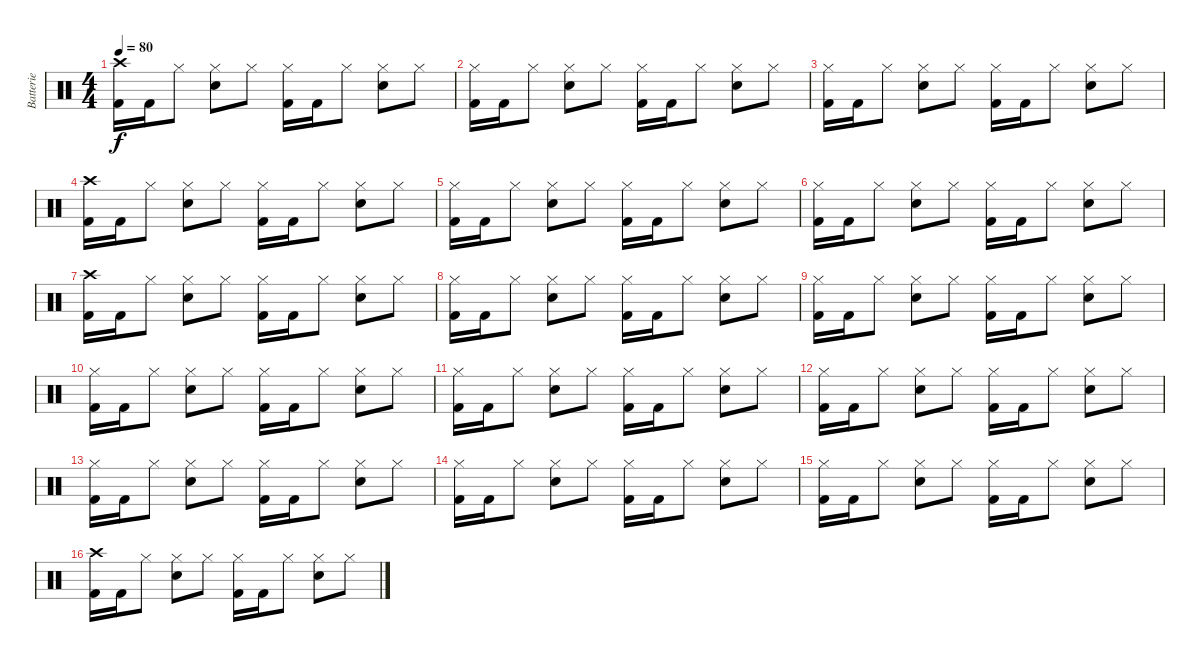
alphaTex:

\track ("Batterie" "Batterie") {instrument percussion}
\staff {score}
\articulation defaults
\ts (4 4)
\tempo 80
\clef neutral
\ks c
("Kick (hit) 2" "Crash high (hit)").16{dy f} "Kick (hit) 2".16 "Hi-Hat (closed)".8 ("Snare (hit) 2" "Hi-Hat (closed)").8 "Hi-Hat (closed)".8 ("Kick (hit) 2" "Hi-Hat (closed)").16 "Kick (hit) 2".16 "Hi-Hat (closed)".8 ("Snare (hit) 2" "Hi-Hat (closed)").8 "Hi-Hat (closed)".8 |
("Kick (hit) 2" "Hi-Hat (closed)").16 "Kick (hit) 2".16 "Hi-Hat (closed)".8 ("Snare (hit) 2" "Hi-Hat (closed)").8 "Hi-Hat (closed)".8 ("Kick (hit) 2" "Hi-Hat (closed)").16 "Kick (hit) 2".16 "Hi-Hat (closed)".8 ("Snare (hit) 2" "Hi-Hat (closed)").8 "Hi-Hat (closed)".8 |
("Kick (hit) 2" "Hi-Hat (closed)").16 "Kick (hit) 2".16 "Hi-Hat (closed)".8 ("Snare (hit) 2" "Hi-Hat (closed)").8 "Hi-Hat (closed)".8 ("Kick (hit) 2" "Hi-Hat (closed)").16 "Kick (hit) 2".16 "Hi-Hat (closed)".8 ("Snare (hit) 2" "Hi-Hat (closed)").8 "Hi-Hat (closed)".8 |
("Kick (hit) 2" "Crash high (hit)").16 "Kick (hit) 2".16 "Hi-Hat (closed)".8 ("Snare (hit) 2" "Hi-Hat (closed)").8 "Hi-Hat (closed)".8 ("Kick (hit) 2" "Hi-Hat (closed)").16 "Kick (hit) 2".16 "Hi-Hat (closed)".8 ("Snare (hit) 2" "Hi-Hat (closed)").8 "Hi-Hat (closed)".8 |
("Kick (hit) 2" "Hi-Hat (closed)").16 "Kick (hit) 2".16 "Hi-Hat (closed)".8 ("Snare (hit) 2" "Hi-Hat (closed)").8 "Hi-Hat (closed)".8 ("Kick (hit) 2" "Hi-Hat (closed)").16 "Kick (hit) 2".16 "Hi-Hat (closed)".8 ("Snare (hit) 2" "Hi-Hat (closed)").8 "Hi-Hat (closed)".8 |
("Kick (hit) 2" "Hi-Hat (closed)").16 "Kick (hit) 2".16 "Hi-Hat (closed)".8 ("Snare (hit) 2" "Hi-Hat (closed)").8 "Hi-Hat (closed)".8 ("Kick (hit) 2" "Hi-Hat (closed)").16 "Kick (hit) 2".16 "Hi-Hat (closed)".8 ("Snare (hit) 2" "Hi-Hat (closed)").8 "Hi-Hat (closed)".8 |
("Kick (hit) 2" "Crash high (hit)").16 "Kick (hit) 2".16 "Hi-Hat (closed)".8 ("Snare (hit) 2" "Hi-Hat (closed)").8 "Hi-Hat (closed)".8 ("Kick (hit) 2" "Hi-Hat (closed)").16 "Kick (hit) 2".16 "Hi-Hat (closed)".8 ("Snare (hit) 2" "Hi-Hat (closed)").8 "Hi-Hat (closed)".8 |
("Kick (hit) 2" "Hi-Hat (closed)").16 "Kick (hit) 2".16 "Hi-Hat (closed)".8 ("Snare (hit) 2" "Hi-Hat (closed)").8 "Hi-Hat (closed)".8 ("Kick (hit) 2" "Hi-Hat (closed)").16 "Kick (hit) 2".16 "Hi-Hat (closed)".8 ("Snare (hit) 2" "Hi-Hat (closed)").8 "Hi-Hat (closed)".8 |
("Kick (hit) 2" "Hi-Hat (closed)").16 "Kick (hit) 2".16 "Hi-Hat (closed)".8 ("Snare (hit) 2" "Hi-Hat (closed)").8 "Hi-Hat (closed)".8 ("Kick (hit) 2" "Hi-Hat (closed)").16 "Kick (hit) 2".16 "Hi-Hat (closed)".8 ("Snare (hit) 2" "Hi-Hat (closed)").8 "Hi-Hat (closed)".8 |
("Kick (hit) 2" "Hi-Hat (closed)").16 "Kick (hit) 2".16 "Hi-Hat (closed)".8 ("Snare (hit) 2" "Hi-Hat (closed)").8 "Hi-Hat (closed)".8 ("Kick (hit) 2" "Hi-Hat (closed)").16 "Kick (hit) 2".16 "Hi-Hat (closed)".8 ("Snare (hit) 2" "Hi-Hat (closed)").8 "Hi-Hat (closed)".8 |
("Kick (hit) 2" "Hi-Hat (closed)").16 "Kick (hit) 2".16 "Hi-Hat (closed)".8 ("Snare (hit) 2" "Hi-Hat (closed)").8 "Hi-Hat (closed)".8 ("Kick (hit) 2" "Hi-Hat (closed)").16 "Kick (hit) 2".16 "Hi-Hat (closed)".8 ("Snare (hit) 2" "Hi-Hat (closed)").8 "Hi-Hat (closed)".8 |
("Kick (hit) 2" "Hi-Hat (closed)").16 "Kick (hit) 2".16 "Hi-Hat (closed)".8 ("Snare (hit) 2" "Hi-Hat (closed)").8 "Hi-Hat (closed)".8 ("Kick (hit) 2" "Hi-Hat (closed)").16 "Kick (hit) 2".16 "Hi-Hat (closed)".8 ("Snare (hit) 2" "Hi-Hat (closed)").8 "Hi-Hat (closed)".8 |
("Kick (hit) 2" "Hi-Hat (closed)").16 "Kick (hit) 2".16 "Hi-Hat (closed)".8 ("Snare (hit) 2" "Hi-Hat (closed)").8 "Hi-Hat (closed)".8 ("Kick (hit) 2" "Hi-Hat (closed)").16 "Kick (hit) 2".16 "Hi-Hat (closed)".8 ("Snare (hit) 2" "Hi-Hat (closed)").8 "Hi-Hat (closed)".8 |
("Kick (hit) 2" "Hi-Hat (closed)").16 "Kick (hit) 2".16 "Hi-Hat (closed)".8 ("Snare (hit) 2" "Hi-Hat (closed)").8 "Hi-Hat (closed)".8 ("Kick (hit) 2" "Hi-Hat (closed)").16 "Kick (hit) 2".16 "Hi-Hat (closed)".8 ("Snare (hit) 2" "Hi-Hat (closed)").8 "Hi-Hat (closed)".8 |
("Kick (hit) 2" "Hi-Hat (closed)").16 "Kick (hit) 2".16 "Hi-Hat (closed)".8 ("Snare (hit) 2" "Hi-Hat (closed)").8 "Hi-Hat (closed)".8 ("Kick (hit) 2" "Hi-Hat (closed)").16 "Kick (hit) 2".16 "Hi-Hat (closed)".8 ("Snare (hit) 2" "Hi-Hat (closed)").8 "Hi-Hat (closed)".8 |
("Kick (hit) 2" "Crash high (hit)").16 "Kick (hit) 2".16 "Hi-Hat (closed)".8 ("Snare (hit) 2" "Hi-Hat (closed)").8 "Hi-Hat (closed)".8 ("Kick (hit) 2" "Hi-Hat (closed)").16 "Kick (hit) 2".16 "Hi-Hat (closed)".8 ("Snare (hit) 2" "Hi-Hat (closed)").8 "Hi-Hat (closed)".8
